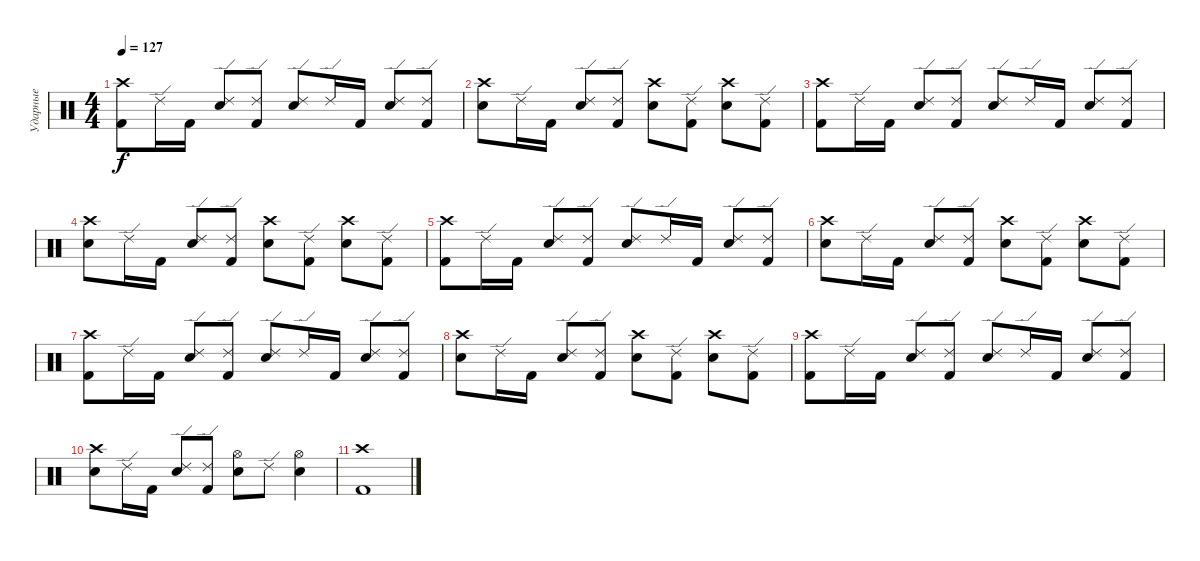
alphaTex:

\track ("Ударные" "Ударные") {instrument percussion}
\staff {score}
\articulation defaults
\ts (4 4)
\tempo 127
\clef neutral
\ks c
("Kick (hit) 2" "Crash high (hit)").8{dy f} "Ride (edge) 2".16 "Kick (hit) 2".16 ("Electric Snare (hit)" "Ride (edge) 2").8 ("Kick (hit) 2" "Ride (edge) 2").8 ("Electric Snare (hit)" "Ride (edge) 2").8 "Ride (edge) 2".16 "Kick (hit) 2".16 ("Electric Snare (hit)" "Ride (edge) 2").8 ("Kick (hit) 2" "Ride (edge) 2").8 |
("Electric Snare (hit)" "Crash high (hit)").8 "Ride (edge) 2".16 "Kick (hit) 2".16 ("Electric Snare (hit)" "Ride (edge) 2").8 ("Kick (hit) 2" "Ride (edge) 2").8 ("Electric Snare (hit)" "Crash high (hit)").8 ("Kick (hit) 2" "Ride (edge) 2").8 ("Electric Snare (hit)" "Crash high (hit)").8 ("Kick (hit) 2" "Ride (edge) 2").8 |
("Kick (hit) 2" "Crash high (hit)").8 "Ride (edge) 2".16 "Kick (hit) 2".16 ("Electric Snare (hit)" "Ride (edge) 2").8 ("Kick (hit) 2" "Ride (edge) 2").8 ("Electric Snare (hit)" "Ride (edge) 2").8 "Ride (edge) 2".16 "Kick (hit) 2".16 ("Electric Snare (hit)" "Ride (edge) 2").8 ("Kick (hit) 2" "Ride (edge) 2").8 |
("Electric Snare (hit)" "Crash high (hit)").8 "Ride (edge) 2".16 "Kick (hit) 2".16 ("Electric Snare (hit)" "Ride (edge) 2").8 ("Kick (hit) 2" "Ride (edge) 2").8 ("Electric Snare (hit)" "Crash high (hit)").8 ("Kick (hit) 2" "Ride (edge) 2").8 ("Electric Snare (hit)" "Crash high (hit)").8 ("Kick (hit) 2" "Ride (edge) 2").8 |
("Kick (hit) 2" "Crash high (hit)").8 "Ride (edge) 2".16 "Kick (hit) 2".16 ("Electric Snare (hit)" "Ride (edge) 2").8 ("Kick (hit) 2" "Ride (edge) 2").8 ("Electric Snare (hit)" "Ride (edge) 2").8 "Ride (edge) 2".16 "Kick (hit) 2".16 ("Electric Snare (hit)" "Ride (edge) 2").8 ("Kick (hit) 2" "Ride (edge) 2").8 |
("Electric Snare (hit)" "Crash high (hit)").8 "Ride (edge) 2".16 "Kick (hit) 2".16 ("Electric Snare (hit)" "Ride (edge) 2").8 ("Kick (hit) 2" "Ride (edge) 2").8 ("Electric Snare (hit)" "Crash high (hit)").8 ("Kick (hit) 2" "Ride (edge) 2").8 ("Electric Snare (hit)" "Crash high (hit)").8 ("Kick (hit) 2" "Ride (edge) 2").8 |
("Kick (hit) 2" "Crash high (hit)").8 "Ride (edge) 2".16 "Kick (hit) 2".16 ("Electric Snare (hit)" "Ride (edge) 2").8 ("Kick (hit) 2" "Ride (edge) 2").8 ("Electric Snare (hit)" "Ride (edge) 2").8 "Ride (edge) 2".16 "Kick (hit) 2".16 ("Electric Snare (hit)" "Ride (edge) 2").8 ("Kick (hit) 2" "Ride (edge) 2").8 |
("Electric Snare (hit)" "Crash high (hit)").8 "Ride (edge) 2".16 "Kick (hit) 2".16 ("Electric Snare (hit)" "Ride (edge) 2").8 ("Kick (hit) 2" "Ride (edge) 2").8 ("Electric Snare (hit)" "Crash high (hit)").8 ("Kick (hit) 2" "Ride (edge) 2").8 ("Electric Snare (hit)" "Crash high (hit)").8 ("Kick (hit) 2" "Ride (edge) 2").8 |
("Kick (hit) 2" "Crash high (hit)").8 "Ride (edge) 2".16 "Kick (hit) 2".16 ("Electric Snare (hit)" "Ride (edge) 2").8 ("Kick (hit) 2" "Ride (edge) 2").8 ("Electric Snare (hit)" "Ride (edge) 2").8 "Ride (edge) 2".16 "Kick (hit) 2".16 ("Electric Snare (hit)" "Ride (edge) 2").8 ("Kick (hit) 2" "Ride (edge) 2").8 |
("Electric Snare (hit)" "Crash high (hit)").8 "Ride (edge) 2".16 "Kick (hit) 2".16 ("Electric Snare (hit)" "Ride (edge) 2").8 ("Kick (hit) 2" "Ride (edge) 2").8 ("Electric Snare (hit)" "Hi-Hat (open)").8 "Ride (edge) 2".8 ("Electric Snare (hit)" "Hi-Hat (open)").4 |
("Kick (hit) 2" "Crash high (hit)").1
